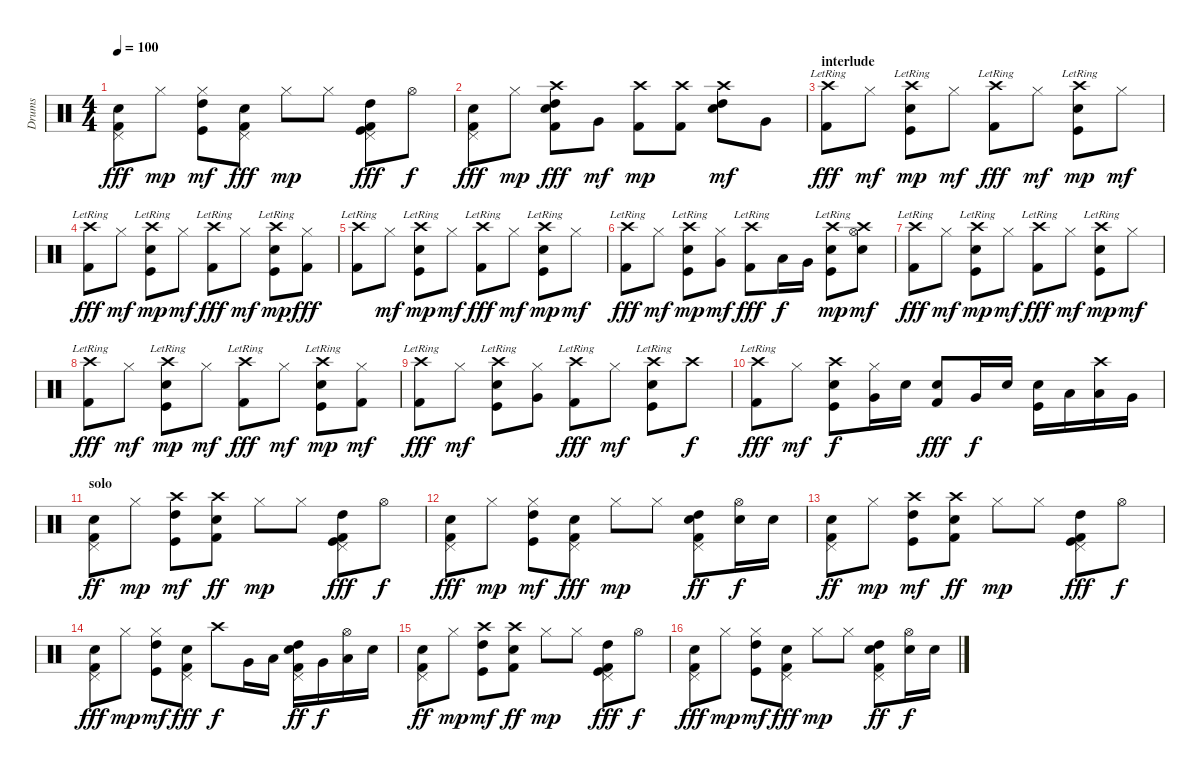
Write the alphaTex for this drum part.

\track ("Drums" "Drums") {instrument percussion}
\staff {score}
\articulation defaults
\ts (4 4)
\tempo 100
\clef neutral
\ks c
("Pedal Hi-Hat (hit)" "Snare (hit) 2" "Kick (hit) 2").8{dy fff} "Hi-Hat (closed)".8{dy mp} ("Hi-Hat (closed)" "Kick (hit)" "High Tom (hit)").8{dy mf} ("Pedal Hi-Hat (hit)" "Snare (hit) 2" "Kick (hit) 2").8{dy fff} "Hi-Hat (closed)".8{dy mp} "Hi-Hat (closed)".8 ("Pedal Hi-Hat (hit)" "Kick (hit)" "High Tom (hit)" "Kick (hit) 2").8{dy fff} "Hi-Hat (open)".8{dy f} |
("Pedal Hi-Hat (hit)" "Snare (hit) 2" "Kick (hit) 2").8{dy fff} "Hi-Hat (closed)".8{dy mp} ("Crash high (hit)" "Snare (hit) 2" "High Tom (hit)" "Kick (hit) 2").8{dy fff} "Very Low Tom (hit)".8{dy mf} ("Crash high (hit)" "Kick (hit) 2").8{dy mp} ("Crash high (hit)" "Kick (hit) 2").8 ("Crash high (hit)" "Snare (hit) 2" "High Tom (hit)").8{dy mf} "Very Low Tom (hit)".8 |
\section ("" "interlude")
("Crash high (hit)"{lr} "Kick (hit) 2").8{dy fff} "Hi-Hat (closed)".8{dy mf} ("Crash high (hit)"{lr} "Snare (hit) 2" "Kick (hit)").8{dy mp} "Hi-Hat (closed)".8{dy mf} ("Crash high (hit)"{lr} "Kick (hit) 2").8{dy fff} "Hi-Hat (closed)".8{dy mf} ("Crash high (hit)"{lr} "Snare (hit) 2" "Kick (hit)").8{dy mp} "Hi-Hat (closed)".8{dy mf} |
("Crash high (hit)"{lr} "Kick (hit) 2").8{dy fff} "Hi-Hat (closed)".8{dy mf} ("Crash high (hit)"{lr} "Snare (hit) 2" "Kick (hit)").8{dy mp} "Hi-Hat (closed)".8{dy mf} ("Crash high (hit)"{lr} "Kick (hit) 2").8{dy fff} "Hi-Hat (closed)".8{dy mf} ("Crash high (hit)"{lr} "Snare (hit) 2" "Kick (hit)").8{dy mp} ("Hi-Hat (closed)" "Kick (hit) 2").8{dy fff} |
("Crash high (hit)"{lr} "Kick (hit) 2").8 "Hi-Hat (closed)".8{dy mf} ("Crash high (hit)"{lr} "Snare (hit) 2" "Kick (hit)").8{dy mp} "Hi-Hat (closed)".8{dy mf} ("Crash high (hit)"{lr} "Kick (hit) 2").8{dy fff} "Hi-Hat (closed)".8{dy mf} ("Crash high (hit)"{lr} "Snare (hit) 2" "Kick (hit)").8{dy mp} "Hi-Hat (closed)".8{dy mf} |
("Crash high (hit)"{lr} "Kick (hit) 2").8{dy fff} "Hi-Hat (closed)".8{dy mf} ("Crash high (hit)"{lr} "Snare (hit) 2" "Kick (hit)").8{dy mp} ("Hi-Hat (closed)" "Very Low Tom (hit)").8{dy mf} ("Crash high (hit)"{lr} "Kick (hit) 2").8{dy fff} "Low Tom (hit)".16{dy f} "Very Low Tom (hit)".16 ("Crash high (hit)"{lr} "Snare (hit) 2" "Kick (hit)").8{dy mp} ("Crash high (hit)" "Hi-Hat (open)" "Snare (hit) 2").8{dy mf} |
("Crash high (hit)"{lr} "Kick (hit) 2").8{dy fff} "Hi-Hat (closed)".8{dy mf} ("Crash high (hit)"{lr} "Snare (hit) 2" "Kick (hit)").8{dy mp} "Hi-Hat (closed)".8{dy mf} ("Crash high (hit)"{lr} "Kick (hit) 2").8{dy fff} "Hi-Hat (closed)".8{dy mf} ("Crash high (hit)"{lr} "Snare (hit) 2" "Kick (hit)").8{dy mp} "Hi-Hat (closed)".8{dy mf} |
("Crash high (hit)"{lr} "Kick (hit) 2").8{dy fff} "Hi-Hat (closed)".8{dy mf} ("Crash high (hit)"{lr} "Snare (hit) 2" "Kick (hit)").8{dy mp} "Hi-Hat (closed)".8{dy mf} ("Crash high (hit)"{lr} "Kick (hit) 2").8{dy fff} "Hi-Hat (closed)".8{dy mf} ("Crash high (hit)"{lr} "Snare (hit) 2" "Kick (hit)").8{dy mp} ("Hi-Hat (closed)" "Kick (hit) 2").8{dy mf} |
("Crash high (hit)"{lr} "Kick (hit) 2").8{dy fff} "Hi-Hat (closed)".8{dy mf} ("Crash high (hit)"{lr} "Snare (hit) 2" "Kick (hit)").8 ("Hi-Hat (closed)" "Very Low Tom (hit)").8 ("Crash high (hit)"{lr} "Kick (hit) 2").8{dy fff} "Hi-Hat (closed)".8{dy mf} ("Crash high (hit)"{lr} "Snare (hit) 2" "Kick (hit)").8 "Crash high (hit)".8{dy f} |
("Crash high (hit)"{lr} "Kick (hit) 2").8{dy fff} "Hi-Hat (closed)".8{dy mf} ("Crash high (hit)" "Electric Snare (hit)" "Kick (hit)").8{dy f} ("Hi-Hat (closed)" "Very Low Tom (hit)").16 "Electric Snare (hit)".16 ("Electric Snare (hit)" "Kick (hit) 2").8{dy fff} "Very Low Tom (hit)".16{dy f} "Electric Snare (hit)".16 ("Electric Snare (hit)" "Kick (hit)").16 "Low Tom (hit)".16 ("Crash high (hit)" "Low Tom (hit)").16 "Very Low Tom (hit)".16 |
\section ("" "solo")
("Pedal Hi-Hat (hit)" "Snare (hit) 2" "Kick (hit) 2").8{dy ff} "Hi-Hat (closed)".8{dy mp} ("Crash high (hit)" "Kick (hit)" "High Tom (hit)").8{dy mf} ("Crash high (hit)" "Snare (hit) 2" "Kick (hit) 2").8{dy ff} "Hi-Hat (closed)".8{dy mp} "Hi-Hat (closed)".8 ("Pedal Hi-Hat (hit)" "Kick (hit)" "High Tom (hit)" "Kick (hit) 2").8{dy fff} "Hi-Hat (open)".8{dy f} |
("Pedal Hi-Hat (hit)" "Snare (hit) 2" "Kick (hit) 2").8{dy fff} "Hi-Hat (closed)".8{dy mp} ("Hi-Hat (closed)" "Kick (hit)" "High Tom (hit)").8{dy mf} ("Pedal Hi-Hat (hit)" "Snare (hit) 2" "Kick (hit) 2").8{dy fff} "Hi-Hat (closed)".8{dy mp} "Hi-Hat (closed)".8 ("Pedal Hi-Hat (hit)" "Snare (hit) 2" "High Tom (hit)" "Kick (hit) 2").8{dy ff} ("Hi-Hat (open)" "Snare (hit) 2").16{dy f} "Snare (hit) 2".16 |
("Pedal Hi-Hat (hit)" "Snare (hit) 2" "Kick (hit) 2").8{dy ff} "Hi-Hat (closed)".8{dy mp} ("Crash high (hit)" "Kick (hit)" "High Tom (hit)").8{dy mf} ("Crash high (hit)" "Snare (hit) 2" "Kick (hit) 2").8{dy ff} "Hi-Hat (closed)".8{dy mp} "Hi-Hat (closed)".8 ("Pedal Hi-Hat (hit)" "Kick (hit)" "High Tom (hit)" "Kick (hit) 2").8{dy fff} "Hi-Hat (open)".8{dy f} |
("Pedal Hi-Hat (hit)" "Snare (hit) 2" "Kick (hit) 2").8{dy fff} "Hi-Hat (closed)".8{dy mp} ("Hi-Hat (closed)" "Kick (hit)" "High Tom (hit)").8{dy mf} ("Pedal Hi-Hat (hit)" "Snare (hit) 2" "Kick (hit) 2").8{dy fff} "Crash high (hit)".8{dy f} "Very Low Tom (hit)".16 "Low Tom (hit)".16 ("Pedal Hi-Hat (hit)" "Snare (hit) 2" "High Tom (hit)" "Kick (hit) 2").16{dy ff} "Very Low Tom (hit)".16{dy f} ("Hi-Hat (open)" "Low Tom (hit)").16 "Snare (hit) 2".16 |
("Pedal Hi-Hat (hit)" "Snare (hit) 2" "Kick (hit) 2").8{dy ff} "Hi-Hat (closed)".8{dy mp} ("Crash high (hit)" "Kick (hit)" "High Tom (hit)").8{dy mf} ("Crash high (hit)" "Snare (hit) 2" "Kick (hit) 2").8{dy ff} "Hi-Hat (closed)".8{dy mp} "Hi-Hat (closed)".8 ("Pedal Hi-Hat (hit)" "Kick (hit)" "High Tom (hit)" "Kick (hit) 2").8{dy fff} "Hi-Hat (open)".8{dy f} |
("Pedal Hi-Hat (hit)" "Snare (hit) 2" "Kick (hit) 2").8{dy fff} "Hi-Hat (closed)".8{dy mp} ("Hi-Hat (closed)" "Kick (hit)" "High Tom (hit)").8{dy mf} ("Pedal Hi-Hat (hit)" "Snare (hit) 2" "Kick (hit) 2").8{dy fff} "Hi-Hat (closed)".8{dy mp} "Hi-Hat (closed)".8 ("Pedal Hi-Hat (hit)" "Snare (hit) 2" "High Tom (hit)" "Kick (hit) 2").8{dy ff} ("Hi-Hat (open)" "Snare (hit) 2").16{dy f} "Snare (hit) 2".16
